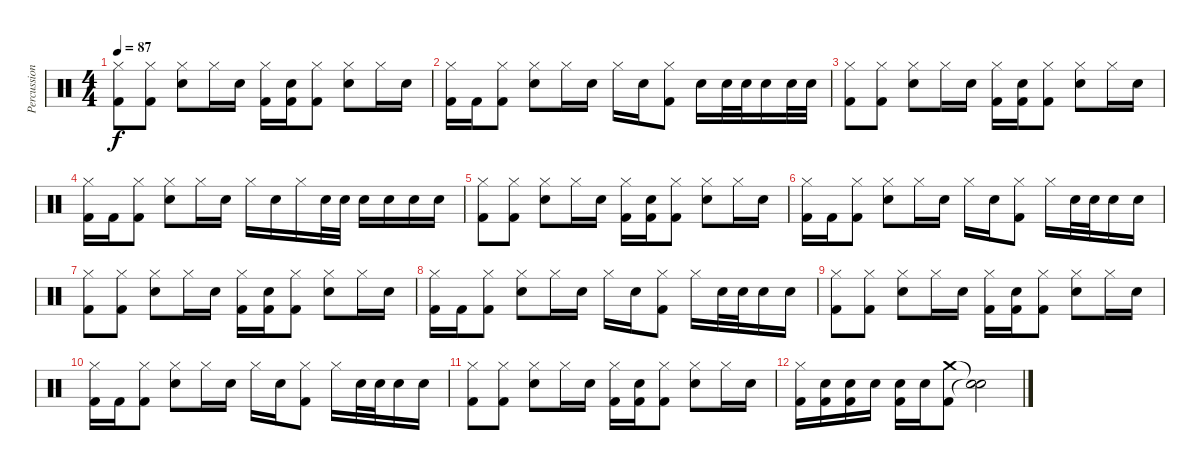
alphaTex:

\track ("Percussion" "Percussion") {instrument percussion}
\staff {score}
\articulation defaults
\ts (4 4)
\tempo 87
\clef neutral
\ks c
("Hi-Hat (closed)" "Kick (hit) 2").8{dy f} ("Hi-Hat (closed)" "Kick (hit) 2").8 ("Hi-Hat (closed)" "Electric Snare (hit)").8 "Hi-Hat (closed)".16 "Electric Snare (hit)".16 ("Hi-Hat (closed)" "Kick (hit) 2").16 ("Electric Snare (hit)" "Kick (hit) 2").16 ("Hi-Hat (closed)" "Kick (hit) 2").8 ("Hi-Hat (closed)" "Electric Snare (hit)").8 "Hi-Hat (closed)".16 "Electric Snare (hit)".16 |
("Hi-Hat (closed)" "Kick (hit) 2").16 "Kick (hit) 2".16 ("Hi-Hat (closed)" "Kick (hit) 2").8 ("Hi-Hat (closed)" "Electric Snare (hit)").8 "Hi-Hat (closed)".16 "Electric Snare (hit)".16 "Hi-Hat (closed)".16 "Electric Snare (hit)".16 ("Hi-Hat (closed)" "Kick (hit) 2").8 "Electric Snare (hit)".16 "Electric Snare (hit)".32 "Electric Snare (hit)".32 "Electric Snare (hit)".16 "Electric Snare (hit)".32 "Electric Snare (hit)".32 |
("Hi-Hat (closed)" "Kick (hit) 2").8 ("Hi-Hat (closed)" "Kick (hit) 2").8 ("Hi-Hat (closed)" "Electric Snare (hit)").8 "Hi-Hat (closed)".16 "Electric Snare (hit)".16 ("Hi-Hat (closed)" "Kick (hit) 2").16 ("Electric Snare (hit)" "Kick (hit) 2").16 ("Hi-Hat (closed)" "Kick (hit) 2").8 ("Hi-Hat (closed)" "Electric Snare (hit)").8 "Hi-Hat (closed)".16 "Electric Snare (hit)".16 |
("Hi-Hat (closed)" "Kick (hit) 2").16 "Kick (hit) 2".16 ("Hi-Hat (closed)" "Kick (hit) 2").8 ("Hi-Hat (closed)" "Electric Snare (hit)").8 "Hi-Hat (closed)".16 "Electric Snare (hit)".16 "Hi-Hat (closed)".16 "Electric Snare (hit)".16 "Hi-Hat (closed)".16 "Electric Snare (hit)".32 "Electric Snare (hit)".32 "Electric Snare (hit)".16 "Electric Snare (hit)".16 "Electric Snare (hit)".16 "Electric Snare (hit)".16 |
("Hi-Hat (closed)" "Kick (hit) 2").8 ("Hi-Hat (closed)" "Kick (hit) 2").8 ("Hi-Hat (closed)" "Electric Snare (hit)").8 "Hi-Hat (closed)".16 "Electric Snare (hit)".16 ("Hi-Hat (closed)" "Kick (hit) 2").16 ("Electric Snare (hit)" "Kick (hit) 2").16 ("Hi-Hat (closed)" "Kick (hit) 2").8 ("Hi-Hat (closed)" "Electric Snare (hit)").8 "Hi-Hat (closed)".16 "Electric Snare (hit)".16 |
("Hi-Hat (closed)" "Kick (hit) 2").16 "Kick (hit) 2".16 ("Hi-Hat (closed)" "Kick (hit) 2").8 ("Hi-Hat (closed)" "Electric Snare (hit)").8 "Hi-Hat (closed)".16 "Electric Snare (hit)".16 "Hi-Hat (closed)".16 "Electric Snare (hit)".16 ("Hi-Hat (closed)" "Kick (hit) 2").8 "Hi-Hat (closed)".16 "Electric Snare (hit)".32 "Electric Snare (hit)".32 "Electric Snare (hit)".16 "Electric Snare (hit)".16 |
("Hi-Hat (closed)" "Kick (hit) 2").8 ("Hi-Hat (closed)" "Kick (hit) 2").8 ("Hi-Hat (closed)" "Electric Snare (hit)").8 "Hi-Hat (closed)".16 "Electric Snare (hit)".16 ("Hi-Hat (closed)" "Kick (hit) 2").16 ("Electric Snare (hit)" "Kick (hit) 2").16 ("Hi-Hat (closed)" "Kick (hit) 2").8 ("Hi-Hat (closed)" "Electric Snare (hit)").8 "Hi-Hat (closed)".16 "Electric Snare (hit)".16 |
("Hi-Hat (closed)" "Kick (hit) 2").16 "Kick (hit) 2".16 ("Hi-Hat (closed)" "Kick (hit) 2").8 ("Hi-Hat (closed)" "Electric Snare (hit)").8 "Hi-Hat (closed)".16 "Electric Snare (hit)".16 "Hi-Hat (closed)".16 "Electric Snare (hit)".16 ("Hi-Hat (closed)" "Kick (hit) 2").8 "Hi-Hat (closed)".16 "Electric Snare (hit)".32 "Electric Snare (hit)".32 "Electric Snare (hit)".16 "Electric Snare (hit)".16 |
("Hi-Hat (closed)" "Kick (hit) 2").8 ("Hi-Hat (closed)" "Kick (hit) 2").8 ("Hi-Hat (closed)" "Electric Snare (hit)").8 "Hi-Hat (closed)".16 "Electric Snare (hit)".16 ("Hi-Hat (closed)" "Kick (hit) 2").16 ("Electric Snare (hit)" "Kick (hit) 2").16 ("Hi-Hat (closed)" "Kick (hit) 2").8 ("Hi-Hat (closed)" "Electric Snare (hit)").8 "Hi-Hat (closed)".16 "Electric Snare (hit)".16 |
("Hi-Hat (closed)" "Kick (hit) 2").16 "Kick (hit) 2".16 ("Hi-Hat (closed)" "Kick (hit) 2").8 ("Hi-Hat (closed)" "Electric Snare (hit)").8 "Hi-Hat (closed)".16 "Electric Snare (hit)".16 "Hi-Hat (closed)".16 "Electric Snare (hit)".16 ("Hi-Hat (closed)" "Kick (hit) 2").8 "Hi-Hat (closed)".16 "Electric Snare (hit)".32 "Electric Snare (hit)".32 "Electric Snare (hit)".16 "Electric Snare (hit)".16 |
("Hi-Hat (closed)" "Kick (hit) 2").8 ("Hi-Hat (closed)" "Kick (hit) 2").8 ("Hi-Hat (closed)" "Electric Snare (hit)").8 "Hi-Hat (closed)".16 "Electric Snare (hit)".16 ("Hi-Hat (closed)" "Kick (hit) 2").16 ("Electric Snare (hit)" "Kick (hit) 2").16 ("Hi-Hat (closed)" "Kick (hit) 2").8 ("Hi-Hat (closed)" "Electric Snare (hit)").8 "Hi-Hat (closed)".16 "Electric Snare (hit)".16 |
("Hi-Hat (closed)" "Kick (hit) 2").16 ("Electric Snare (hit)" "Kick (hit) 2").16 ("Electric Snare (hit)" "Kick (hit) 2").16 "Electric Snare (hit)".16 ("Electric Snare (hit)" "Kick (hit) 2").16 "Electric Snare (hit)".16 ("Crash medium (hit)" "Kick (hit) 2").8 ("Snare (hit)"{t} "Snare (hit)"{t}).2
